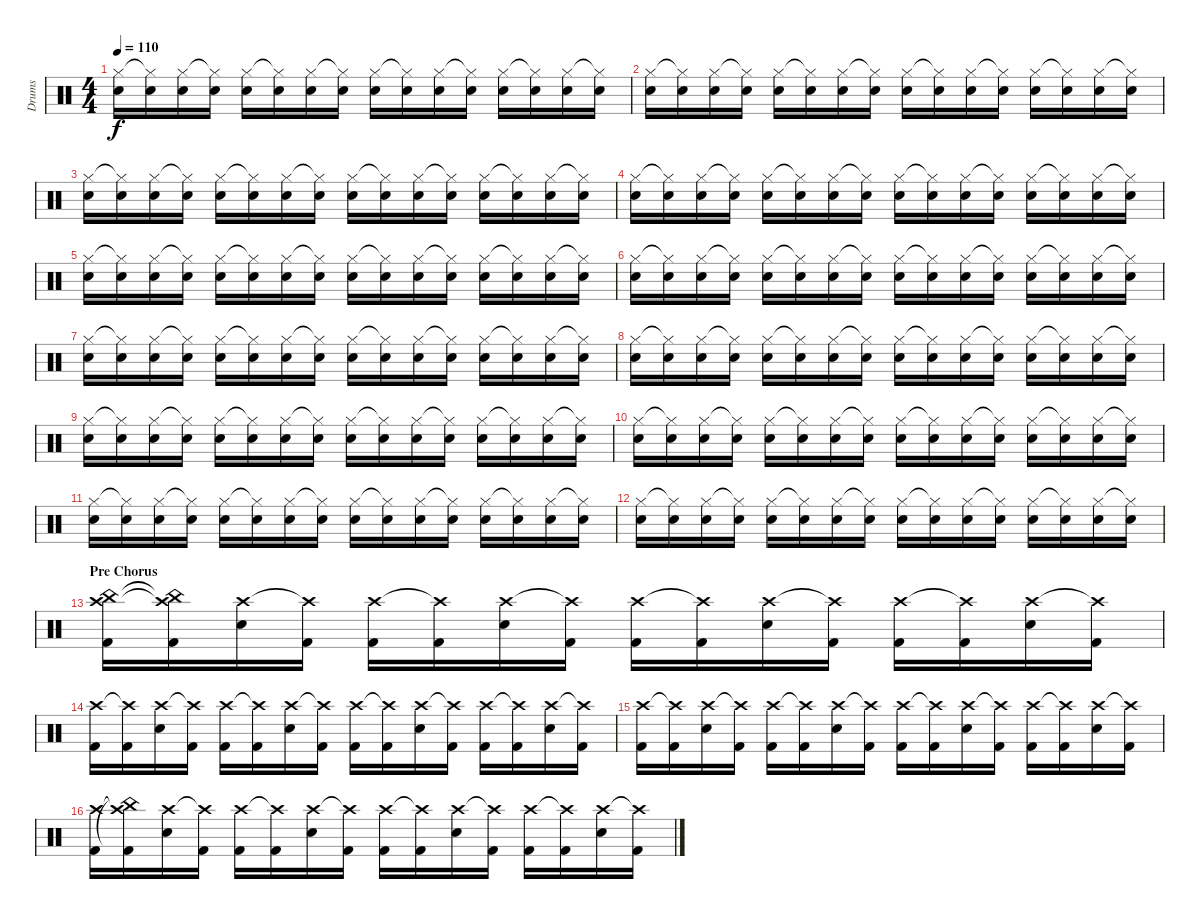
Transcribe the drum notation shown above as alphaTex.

\track ("Drums" "Drums") {instrument percussion}
\staff {score}
\articulation defaults
\ts (4 4)
\tempo 110
\clef neutral
\ks c
("Snare (hit) 2" "Hi-Hat (closed)").16{dy f} ("Snare (hit) 2" "Hi-Hat (closed)"{t}).16 ("Snare (hit) 2" "Hi-Hat (closed)").16 ("Snare (hit) 2" "Hi-Hat (closed)"{t}).16 ("Snare (hit) 2" "Hi-Hat (closed)").16 ("Snare (hit) 2" "Hi-Hat (closed)"{t}).16 ("Snare (hit) 2" "Hi-Hat (closed)").16 ("Snare (hit) 2" "Hi-Hat (closed)"{t}).16 ("Snare (hit) 2" "Hi-Hat (closed)").16 ("Snare (hit) 2" "Hi-Hat (closed)"{t}).16 ("Snare (hit) 2" "Hi-Hat (closed)").16 ("Snare (hit) 2" "Hi-Hat (closed)"{t}).16 ("Snare (hit) 2" "Hi-Hat (closed)").16 ("Snare (hit) 2" "Hi-Hat (closed)"{t}).16 ("Snare (hit) 2" "Hi-Hat (closed)").16 ("Snare (hit) 2" "Hi-Hat (closed)"{t}).16 |
("Snare (hit) 2" "Hi-Hat (closed)").16 ("Snare (hit) 2" "Hi-Hat (closed)"{t}).16 ("Snare (hit) 2" "Hi-Hat (closed)").16 ("Snare (hit) 2" "Hi-Hat (closed)"{t}).16 ("Snare (hit) 2" "Hi-Hat (closed)").16 ("Snare (hit) 2" "Hi-Hat (closed)"{t}).16 ("Snare (hit) 2" "Hi-Hat (closed)").16 ("Snare (hit) 2" "Hi-Hat (closed)"{t}).16 ("Snare (hit) 2" "Hi-Hat (closed)").16 ("Snare (hit) 2" "Hi-Hat (closed)"{t}).16 ("Snare (hit) 2" "Hi-Hat (closed)").16 ("Snare (hit) 2" "Hi-Hat (closed)"{t}).16 ("Snare (hit) 2" "Hi-Hat (closed)").16 ("Snare (hit) 2" "Hi-Hat (closed)"{t}).16 ("Snare (hit) 2" "Hi-Hat (closed)").16 ("Snare (hit) 2" "Hi-Hat (closed)"{t}).16 |
("Snare (hit) 2" "Hi-Hat (closed)").16 ("Snare (hit) 2" "Hi-Hat (closed)"{t}).16 ("Snare (hit) 2" "Hi-Hat (closed)").16 ("Snare (hit) 2" "Hi-Hat (closed)"{t}).16 ("Snare (hit) 2" "Hi-Hat (closed)").16 ("Snare (hit) 2" "Hi-Hat (closed)"{t}).16 ("Snare (hit) 2" "Hi-Hat (closed)").16 ("Snare (hit) 2" "Hi-Hat (closed)"{t}).16 ("Snare (hit) 2" "Hi-Hat (closed)").16 ("Snare (hit) 2" "Hi-Hat (closed)"{t}).16 ("Snare (hit) 2" "Hi-Hat (closed)").16 ("Snare (hit) 2" "Hi-Hat (closed)"{t}).16 ("Snare (hit) 2" "Hi-Hat (closed)").16 ("Snare (hit) 2" "Hi-Hat (closed)"{t}).16 ("Snare (hit) 2" "Hi-Hat (closed)").16 ("Snare (hit) 2" "Hi-Hat (closed)"{t}).16 |
("Snare (hit) 2" "Hi-Hat (closed)").16 ("Snare (hit) 2" "Hi-Hat (closed)"{t}).16 ("Snare (hit) 2" "Hi-Hat (closed)").16 ("Snare (hit) 2" "Hi-Hat (closed)"{t}).16 ("Snare (hit) 2" "Hi-Hat (closed)").16 ("Snare (hit) 2" "Hi-Hat (closed)"{t}).16 ("Snare (hit) 2" "Hi-Hat (closed)").16 ("Snare (hit) 2" "Hi-Hat (closed)"{t}).16 ("Snare (hit) 2" "Hi-Hat (closed)").16 ("Snare (hit) 2" "Hi-Hat (closed)"{t}).16 ("Snare (hit) 2" "Hi-Hat (closed)").16 ("Snare (hit) 2" "Hi-Hat (closed)"{t}).16 ("Snare (hit) 2" "Hi-Hat (closed)").16 ("Snare (hit) 2" "Hi-Hat (closed)"{t}).16 ("Snare (hit) 2" "Hi-Hat (closed)").16 ("Snare (hit) 2" "Hi-Hat (closed)"{t}).16 |
("Snare (hit) 2" "Hi-Hat (closed)").16 ("Snare (hit) 2" "Hi-Hat (closed)"{t}).16 ("Snare (hit) 2" "Hi-Hat (closed)").16 ("Snare (hit) 2" "Hi-Hat (closed)"{t}).16 ("Snare (hit) 2" "Hi-Hat (closed)").16 ("Snare (hit) 2" "Hi-Hat (closed)"{t}).16 ("Snare (hit) 2" "Hi-Hat (closed)").16 ("Snare (hit) 2" "Hi-Hat (closed)"{t}).16 ("Snare (hit) 2" "Hi-Hat (closed)").16 ("Snare (hit) 2" "Hi-Hat (closed)"{t}).16 ("Snare (hit) 2" "Hi-Hat (closed)").16 ("Snare (hit) 2" "Hi-Hat (closed)"{t}).16 ("Snare (hit) 2" "Hi-Hat (closed)").16 ("Snare (hit) 2" "Hi-Hat (closed)"{t}).16 ("Snare (hit) 2" "Hi-Hat (closed)").16 ("Snare (hit) 2" "Hi-Hat (closed)"{t}).16 |
("Snare (hit) 2" "Hi-Hat (closed)").16 ("Snare (hit) 2" "Hi-Hat (closed)"{t}).16 ("Snare (hit) 2" "Hi-Hat (closed)").16 ("Snare (hit) 2" "Hi-Hat (closed)"{t}).16 ("Snare (hit) 2" "Hi-Hat (closed)").16 ("Snare (hit) 2" "Hi-Hat (closed)"{t}).16 ("Snare (hit) 2" "Hi-Hat (closed)").16 ("Snare (hit) 2" "Hi-Hat (closed)"{t}).16 ("Snare (hit) 2" "Hi-Hat (closed)").16 ("Snare (hit) 2" "Hi-Hat (closed)"{t}).16 ("Snare (hit) 2" "Hi-Hat (closed)").16 ("Snare (hit) 2" "Hi-Hat (closed)"{t}).16 ("Snare (hit) 2" "Hi-Hat (closed)").16 ("Snare (hit) 2" "Hi-Hat (closed)"{t}).16 ("Snare (hit) 2" "Hi-Hat (closed)").16 ("Snare (hit) 2" "Hi-Hat (closed)"{t}).16 |
("Snare (hit) 2" "Hi-Hat (closed)").16 ("Snare (hit) 2" "Hi-Hat (closed)"{t}).16 ("Snare (hit) 2" "Hi-Hat (closed)").16 ("Snare (hit) 2" "Hi-Hat (closed)"{t}).16 ("Snare (hit) 2" "Hi-Hat (closed)").16 ("Snare (hit) 2" "Hi-Hat (closed)"{t}).16 ("Snare (hit) 2" "Hi-Hat (closed)").16 ("Snare (hit) 2" "Hi-Hat (closed)"{t}).16 ("Snare (hit) 2" "Hi-Hat (closed)").16 ("Snare (hit) 2" "Hi-Hat (closed)"{t}).16 ("Snare (hit) 2" "Hi-Hat (closed)").16 ("Snare (hit) 2" "Hi-Hat (closed)"{t}).16 ("Snare (hit) 2" "Hi-Hat (closed)").16 ("Snare (hit) 2" "Hi-Hat (closed)"{t}).16 ("Snare (hit) 2" "Hi-Hat (closed)").16 ("Snare (hit) 2" "Hi-Hat (closed)"{t}).16 |
("Snare (hit) 2" "Hi-Hat (closed)").16 ("Snare (hit) 2" "Hi-Hat (closed)"{t}).16 ("Snare (hit) 2" "Hi-Hat (closed)").16 ("Snare (hit) 2" "Hi-Hat (closed)"{t}).16 ("Snare (hit) 2" "Hi-Hat (closed)").16 ("Snare (hit) 2" "Hi-Hat (closed)"{t}).16 ("Snare (hit) 2" "Hi-Hat (closed)").16 ("Snare (hit) 2" "Hi-Hat (closed)"{t}).16 ("Snare (hit) 2" "Hi-Hat (closed)").16 ("Snare (hit) 2" "Hi-Hat (closed)"{t}).16 ("Snare (hit) 2" "Hi-Hat (closed)").16 ("Snare (hit) 2" "Hi-Hat (closed)"{t}).16 ("Snare (hit) 2" "Hi-Hat (closed)").16 ("Snare (hit) 2" "Hi-Hat (closed)"{t}).16 ("Snare (hit) 2" "Hi-Hat (closed)").16 ("Snare (hit) 2" "Hi-Hat (closed)"{t}).16 |
("Snare (hit) 2" "Hi-Hat (closed)").16 ("Snare (hit) 2" "Hi-Hat (closed)"{t}).16 ("Snare (hit) 2" "Hi-Hat (closed)").16 ("Snare (hit) 2" "Hi-Hat (closed)"{t}).16 ("Snare (hit) 2" "Hi-Hat (closed)").16 ("Snare (hit) 2" "Hi-Hat (closed)"{t}).16 ("Snare (hit) 2" "Hi-Hat (closed)").16 ("Snare (hit) 2" "Hi-Hat (closed)"{t}).16 ("Snare (hit) 2" "Hi-Hat (closed)").16 ("Snare (hit) 2" "Hi-Hat (closed)"{t}).16 ("Snare (hit) 2" "Hi-Hat (closed)").16 ("Snare (hit) 2" "Hi-Hat (closed)"{t}).16 ("Snare (hit) 2" "Hi-Hat (closed)").16 ("Snare (hit) 2" "Hi-Hat (closed)"{t}).16 ("Snare (hit) 2" "Hi-Hat (closed)").16 ("Snare (hit) 2" "Hi-Hat (closed)"{t}).16 |
("Snare (hit) 2" "Hi-Hat (closed)").16 ("Snare (hit) 2" "Hi-Hat (closed)"{t}).16 ("Snare (hit) 2" "Hi-Hat (closed)").16 ("Snare (hit) 2" "Hi-Hat (closed)"{t}).16 ("Snare (hit) 2" "Hi-Hat (closed)").16 ("Snare (hit) 2" "Hi-Hat (closed)"{t}).16 ("Snare (hit) 2" "Hi-Hat (closed)").16 ("Snare (hit) 2" "Hi-Hat (closed)"{t}).16 ("Snare (hit) 2" "Hi-Hat (closed)").16 ("Snare (hit) 2" "Hi-Hat (closed)"{t}).16 ("Snare (hit) 2" "Hi-Hat (closed)").16 ("Snare (hit) 2" "Hi-Hat (closed)"{t}).16 ("Snare (hit) 2" "Hi-Hat (closed)").16 ("Snare (hit) 2" "Hi-Hat (closed)"{t}).16 ("Snare (hit) 2" "Hi-Hat (closed)").16 ("Snare (hit) 2" "Hi-Hat (closed)"{t}).16 |
("Snare (hit) 2" "Hi-Hat (closed)").16 ("Snare (hit) 2" "Hi-Hat (closed)"{t}).16 ("Snare (hit) 2" "Hi-Hat (closed)").16 ("Snare (hit) 2" "Hi-Hat (closed)"{t}).16 ("Snare (hit) 2" "Hi-Hat (closed)").16 ("Snare (hit) 2" "Hi-Hat (closed)"{t}).16 ("Snare (hit) 2" "Hi-Hat (closed)").16 ("Snare (hit) 2" "Hi-Hat (closed)"{t}).16 ("Snare (hit) 2" "Hi-Hat (closed)").16 ("Snare (hit) 2" "Hi-Hat (closed)"{t}).16 ("Snare (hit) 2" "Hi-Hat (closed)").16 ("Snare (hit) 2" "Hi-Hat (closed)"{t}).16 ("Snare (hit) 2" "Hi-Hat (closed)").16 ("Snare (hit) 2" "Hi-Hat (closed)"{t}).16 ("Snare (hit) 2" "Hi-Hat (closed)").16 ("Snare (hit) 2" "Hi-Hat (closed)"{t}).16 |
("Snare (hit) 2" "Hi-Hat (closed)").16 ("Snare (hit) 2" "Hi-Hat (closed)"{t}).16 ("Snare (hit) 2" "Hi-Hat (closed)").16 ("Snare (hit) 2" "Hi-Hat (closed)"{t}).16 ("Snare (hit) 2" "Hi-Hat (closed)").16 ("Snare (hit) 2" "Hi-Hat (closed)"{t}).16 ("Snare (hit) 2" "Hi-Hat (closed)").16 ("Snare (hit) 2" "Hi-Hat (closed)"{t}).16 ("Snare (hit) 2" "Hi-Hat (closed)").16 ("Snare (hit) 2" "Hi-Hat (closed)"{t}).16 ("Snare (hit) 2" "Hi-Hat (closed)").16 ("Snare (hit) 2" "Hi-Hat (closed)"{t}).16 ("Snare (hit) 2" "Hi-Hat (closed)").16 ("Snare (hit) 2" "Hi-Hat (closed)"{t}).16 ("Snare (hit) 2" "Hi-Hat (closed)").16 ("Snare (hit) 2" "Hi-Hat (closed)"{t}).16 |
\section ("" "Pre Chorus")
("Crash high (hit)" "China (hit)" "Kick (hit) 2").16 ("Crash high (hit)"{t} "China (hit)"{t} "Kick (hit) 2").16 ("Crash high (hit)" "Snare (hit) 2").16 ("Crash high (hit)"{t} "Kick (hit) 2").16 ("Crash high (hit)" "Kick (hit) 2").16 ("Crash high (hit)"{t} "Kick (hit) 2").16 ("Crash high (hit)" "Snare (hit) 2").16 ("Crash high (hit)"{t} "Kick (hit) 2").16 ("Crash high (hit)" "Kick (hit) 2").16 ("Crash high (hit)"{t} "Kick (hit) 2").16 ("Crash high (hit)" "Snare (hit) 2").16 ("Crash high (hit)"{t} "Kick (hit) 2").16 ("Crash high (hit)" "Kick (hit) 2").16 ("Crash high (hit)"{t} "Kick (hit) 2").16 ("Crash high (hit)" "Snare (hit) 2").16 ("Crash high (hit)"{t} "Kick (hit) 2").16 |
("Crash high (hit)" "Kick (hit) 2").16 ("Crash high (hit)"{t} "Kick (hit) 2").16 ("Crash high (hit)" "Snare (hit) 2").16 ("Crash high (hit)"{t} "Kick (hit) 2").16 ("Crash high (hit)" "Kick (hit) 2").16 ("Crash high (hit)"{t} "Kick (hit) 2").16 ("Crash high (hit)" "Snare (hit) 2").16 ("Crash high (hit)"{t} "Kick (hit) 2").16 ("Crash high (hit)" "Kick (hit) 2").16 ("Crash high (hit)"{t} "Kick (hit) 2").16 ("Crash high (hit)" "Snare (hit) 2").16 ("Crash high (hit)"{t} "Kick (hit) 2").16 ("Crash high (hit)" "Kick (hit) 2").16 ("Crash high (hit)"{t} "Kick (hit) 2").16 ("Crash high (hit)" "Snare (hit) 2").16 ("Crash high (hit)"{t} "Kick (hit) 2").16 |
("Crash high (hit)" "Kick (hit) 2").16 ("Crash high (hit)"{t} "Kick (hit) 2").16 ("Crash high (hit)" "Snare (hit) 2").16 ("Crash high (hit)"{t} "Kick (hit) 2").16 ("Crash high (hit)" "Kick (hit) 2").16 ("Crash high (hit)"{t} "Kick (hit) 2").16 ("Crash high (hit)" "Snare (hit) 2").16 ("Crash high (hit)"{t} "Kick (hit) 2").16 ("Crash high (hit)" "Kick (hit) 2").16 ("Crash high (hit)"{t} "Kick (hit) 2").16 ("Crash high (hit)" "Snare (hit) 2").16 ("Crash high (hit)"{t} "Kick (hit) 2").16 ("Crash high (hit)" "Kick (hit) 2").16 ("Crash high (hit)"{t} "Kick (hit) 2").16 ("Crash high (hit)" "Snare (hit) 2").16 ("Crash high (hit)"{t} "Kick (hit) 2").16 |
("Crash high (hit)" "Kick (hit) 2").16 ("Crash high (hit)"{t} "China (hit)"{t} "Kick (hit) 2").16 ("Crash high (hit)" "Snare (hit) 2").16 ("Crash high (hit)"{t} "Kick (hit) 2").16 ("Crash high (hit)" "Kick (hit) 2").16 ("Crash high (hit)"{t} "Kick (hit) 2").16 ("Crash high (hit)" "Snare (hit) 2").16 ("Crash high (hit)"{t} "Kick (hit) 2").16 ("Crash high (hit)" "Kick (hit) 2").16 ("Crash high (hit)"{t} "Kick (hit) 2").16 ("Crash high (hit)" "Snare (hit) 2").16 ("Crash high (hit)"{t} "Kick (hit) 2").16 ("Crash high (hit)" "Kick (hit) 2").16 ("Crash high (hit)"{t} "Kick (hit) 2").16 ("Crash high (hit)" "Snare (hit) 2").16 ("Crash high (hit)"{t} "Kick (hit) 2").16
